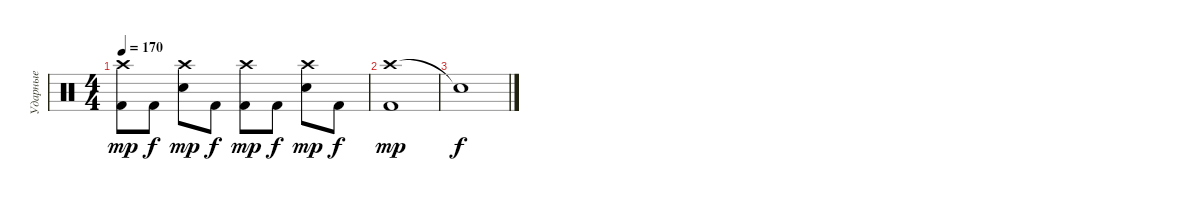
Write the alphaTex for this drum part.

\track ("Ударные" "Ударные") {instrument percussion}
\staff {score}
\articulation defaults
\ts (4 4)
\tempo 170
\clef neutral
\ks c
("Crash high (hit)" "Kick (hit) 2").8{dy mp} "Kick (hit) 2".8{dy f} ("Crash high (hit)" "Electric Snare (hit)").8{dy mp} "Kick (hit) 2".8{dy f} ("Crash high (hit)" "Kick (hit) 2").8{dy mp} "Kick (hit) 2".8{dy f} ("Crash high (hit)" "Electric Snare (hit)").8{dy mp} "Kick (hit) 2".8{dy f} |
("Crash high (hit)" "Kick (hit) 2").1{dy mp} |
"Snare (hit)"{t}.1{dy f}
